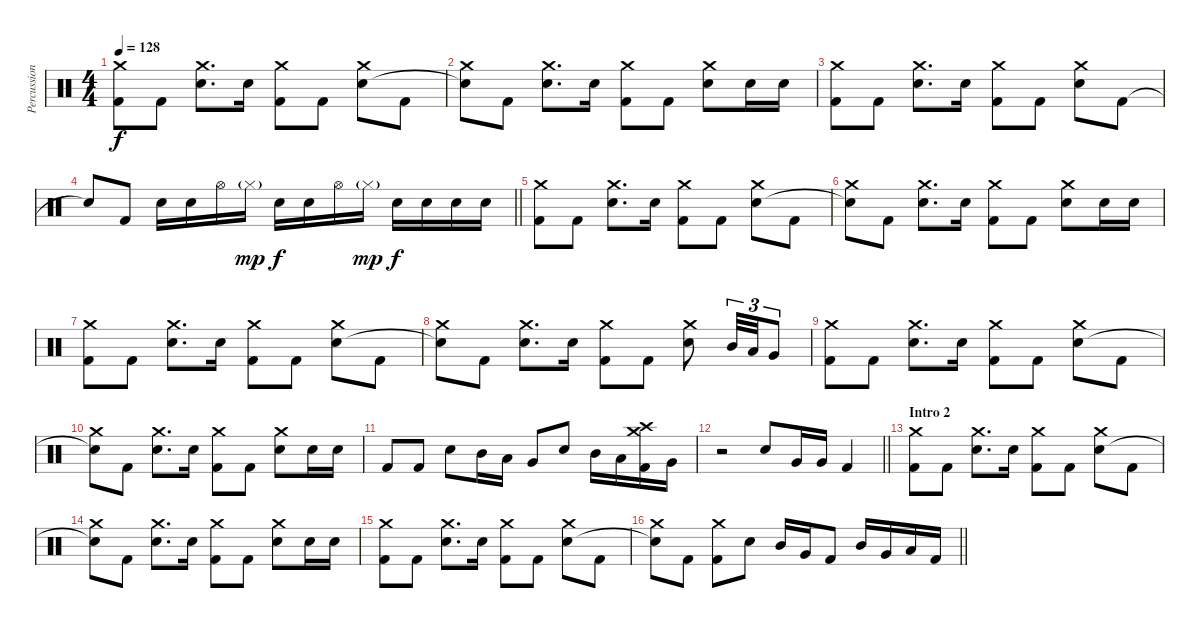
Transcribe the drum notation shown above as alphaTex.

\track ("Percussion" "Percussion") {instrument percussion}
\staff {score}
\articulation defaults
\ts (4 4)
\tempo 128
\clef neutral
\ks c
("Crash medium (hit)" "Kick (hit) 2").8{dy f} "Kick (hit) 2".8 ("Crash medium (hit)" "Snare (hit) 2").8{d} "Snare (hit) 2".16 ("Crash medium (hit)" "Kick (hit) 2").8 "Kick (hit) 2".8 ("Crash medium (hit)" "Snare (hit) 2").8 "Kick (hit) 2".8 |
("Crash medium (hit)" "Snare (hit)"{t}).8 "Kick (hit) 2".8 ("Crash medium (hit)" "Snare (hit) 2").8{d} "Snare (hit) 2".16 ("Crash medium (hit)" "Kick (hit) 2").8 "Kick (hit) 2".8 ("Crash medium (hit)" "Snare (hit) 2").8 "Snare (hit) 2".16 "Snare (hit) 2".16 |
("Crash medium (hit)" "Kick (hit) 2").8 "Kick (hit) 2".8 ("Crash medium (hit)" "Snare (hit) 2").8{d} "Snare (hit) 2".16 ("Crash medium (hit)" "Kick (hit) 2").8 "Kick (hit) 2".8 ("Crash medium (hit)" "Snare (hit) 2").8 "Kick (hit) 2".8 |
\barLineRight lightlight "Snare (hit)"{t}.8 "Kick (hit) 2".8 "Snare (hit) 2".16 "Snare (hit) 2".16 "Hi-Hat (open)".16 "Hi-Hat (closed)"{g}.16{dy mp} "Snare (hit) 2".16{dy f} "Snare (hit) 2".16 "Hi-Hat (open)".16 "Hi-Hat (closed)"{g}.16{dy mp} "Snare (hit) 2".16{dy f} "Snare (hit) 2".16 "Snare (hit) 2".16 "Snare (hit) 2".16
|
("Crash medium (hit)" "Kick (hit) 2").8 "Kick (hit) 2".8 ("Crash medium (hit)" "Snare (hit) 2").8{d} "Snare (hit) 2".16 ("Crash medium (hit)" "Kick (hit) 2").8 "Kick (hit) 2".8 ("Crash medium (hit)" "Snare (hit) 2").8 "Kick (hit) 2".8 |
("Crash medium (hit)" "Snare (hit)"{t}).8 "Kick (hit) 2".8 ("Crash medium (hit)" "Snare (hit) 2").8{d} "Snare (hit) 2".16 ("Crash medium (hit)" "Kick (hit) 2").8 "Kick (hit) 2".8 ("Crash medium (hit)" "Snare (hit) 2").8 "Snare (hit) 2".16 "Snare (hit) 2".16 |
("Crash medium (hit)" "Kick (hit) 2").8 "Kick (hit) 2".8 ("Crash medium (hit)" "Snare (hit) 2").8{d} "Snare (hit) 2".16 ("Crash medium (hit)" "Kick (hit) 2").8 "Kick (hit) 2".8 ("Crash medium (hit)" "Snare (hit) 2").8 "Kick (hit) 2".8 |
("Crash medium (hit)" "Snare (hit)"{t}).8 "Kick (hit) 2".8 ("Crash medium (hit)" "Snare (hit) 2").8{d} "Snare (hit) 2".16 ("Crash medium (hit)" "Kick (hit) 2").8 "Kick (hit) 2".8 ("Crash medium (hit)" "Snare (hit) 2").8 "Mid Tom (hit)".32{tu (3 2)} "Low Tom (hit)".32{tu (3 2)} "Very Low Tom (hit)".8{tu (3 2)} |
("Crash medium (hit)" "Kick (hit) 2").8 "Kick (hit) 2".8 ("Crash medium (hit)" "Snare (hit) 2").8{d} "Snare (hit) 2".16 ("Crash medium (hit)" "Kick (hit) 2").8 "Kick (hit) 2".8 ("Crash medium (hit)" "Snare (hit) 2").8 "Kick (hit) 2".8 |
("Crash medium (hit)" "Snare (hit)"{t}).8 "Kick (hit) 2".8 ("Crash medium (hit)" "Snare (hit) 2").8{d} "Snare (hit) 2".16 ("Crash medium (hit)" "Kick (hit) 2").8 "Kick (hit) 2".8 ("Crash medium (hit)" "Snare (hit) 2").8 "Snare (hit) 2".16 "Snare (hit) 2".16 |
"Kick (hit) 2".8 "Kick (hit) 2".8 "Snare (hit) 2".8 "Mid Tom (hit)".16 "Low Tom (hit)".16 "Very Low Tom (hit)".8 "Snare (hit) 2".8 "Mid Tom (hit)".16 "Low Tom (hit)".16 ("Crash high (hit)" "Crash medium (hit)" "Kick (hit) 2").16 "Very Low Tom (hit)".16 |
\barLineRight lightlight
r.2 "Snare (hit) 2".8 "Very Low Tom (hit)".16 "Very Low Tom (hit)".16 "Kick (hit) 2".4 |
\section ("" "Intro 2")
("Crash medium (hit)" "Kick (hit) 2").8 "Kick (hit) 2".8 ("Crash medium (hit)" "Snare (hit) 2").8{d} "Snare (hit) 2".16 ("Crash medium (hit)" "Kick (hit) 2").8 "Kick (hit) 2".8 ("Crash medium (hit)" "Snare (hit) 2").8 "Kick (hit) 2".8 |
("Crash medium (hit)" "Snare (hit)"{t}).8 "Kick (hit) 2".8 ("Crash medium (hit)" "Snare (hit) 2").8{d} "Snare (hit) 2".16 ("Crash medium (hit)" "Kick (hit) 2").8 "Kick (hit) 2".8 ("Crash medium (hit)" "Snare (hit) 2").8 "Snare (hit) 2".16 "Snare (hit) 2".16 |
("Crash medium (hit)" "Kick (hit) 2").8 "Kick (hit) 2".8 ("Crash medium (hit)" "Snare (hit) 2").8{d} "Snare (hit) 2".16 ("Crash medium (hit)" "Kick (hit) 2").8 "Kick (hit) 2".8 ("Crash medium (hit)" "Snare (hit) 2").8 "Kick (hit) 2".8 |
\barLineRight lightlight
("Crash medium (hit)" "Snare (hit)"{t}).8 "Kick (hit) 2".8 ("Crash medium (hit)" "Kick (hit) 2").8 "Snare (hit) 2".8 "Mid Tom (hit)".16 "Very Low Tom (hit)".16 "Kick (hit) 2".8 "Mid Tom (hit)".16 "Very Low Tom (hit)".16 "Low Tom (hit)".16 "Kick (hit) 2".16
